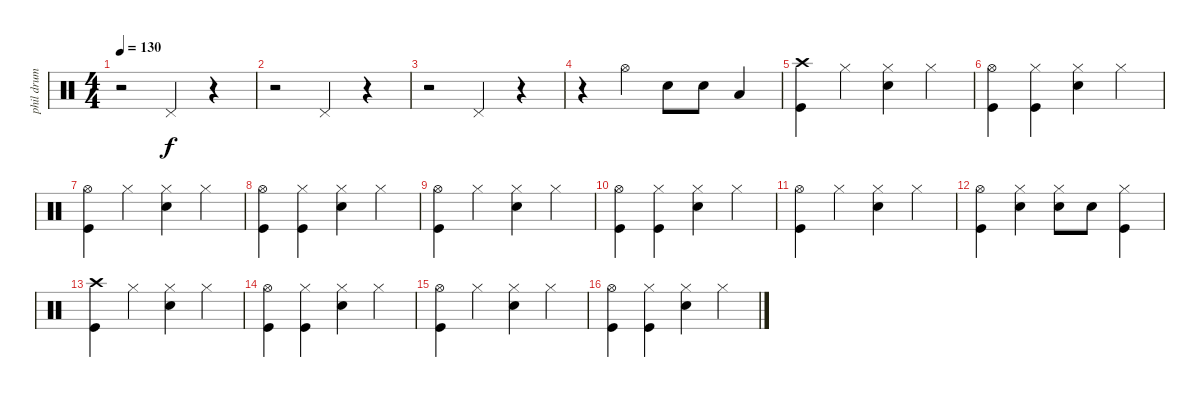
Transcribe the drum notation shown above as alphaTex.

\track ("phil drum" "phil drum") {instrument percussion}
\staff {score}
\articulation defaults
\ts (4 4)
\tempo 130
\clef neutral
\ks c
r.2{dy f} "Pedal Hi-Hat (hit)".4 r.4 |
r.2 "Pedal Hi-Hat (hit)".4 r.4 |
r.2 "Pedal Hi-Hat (hit)".4 r.4 |
r.4 "Hi-Hat (open)".4 "Snare (hit) 2".8 "Snare (hit) 2".8 "Low Tom (hit)".4 |
("Crash high (hit)" "Kick (hit)").4 "Hi-Hat (closed)".4 ("Hi-Hat (closed)" "Snare (hit) 2").4 "Hi-Hat (closed)".4 |
("Hi-Hat (open)" "Kick (hit)").4 ("Hi-Hat (closed)" "Kick (hit)").4 ("Hi-Hat (closed)" "Snare (hit) 2").4 "Hi-Hat (closed)".4 |
("Hi-Hat (open)" "Kick (hit)").4 "Hi-Hat (closed)".4 ("Hi-Hat (closed)" "Snare (hit) 2").4 "Hi-Hat (closed)".4 |
("Hi-Hat (open)" "Kick (hit)").4 ("Hi-Hat (closed)" "Kick (hit)").4 ("Hi-Hat (closed)" "Snare (hit) 2").4 "Hi-Hat (closed)".4 |
("Hi-Hat (open)" "Kick (hit)").4 "Hi-Hat (closed)".4 ("Hi-Hat (closed)" "Snare (hit) 2").4 "Hi-Hat (closed)".4 |
("Hi-Hat (open)" "Kick (hit)").4 ("Hi-Hat (closed)" "Kick (hit)").4 ("Hi-Hat (closed)" "Snare (hit) 2").4 "Hi-Hat (closed)".4 |
("Hi-Hat (open)" "Kick (hit)").4 "Hi-Hat (closed)".4 ("Hi-Hat (closed)" "Snare (hit) 2").4 "Hi-Hat (closed)".4 |
("Hi-Hat (open)" "Kick (hit)").4 ("Hi-Hat (closed)" "Snare (hit) 2").4 ("Hi-Hat (closed)" "Snare (hit) 2").8 "Snare (hit) 2".8 ("Hi-Hat (closed)" "Kick (hit)").4 |
("Crash high (hit)" "Kick (hit)").4 "Hi-Hat (closed)".4 ("Hi-Hat (closed)" "Snare (hit) 2").4 "Hi-Hat (closed)".4 |
("Hi-Hat (open)" "Kick (hit)").4 ("Hi-Hat (closed)" "Kick (hit)").4 ("Hi-Hat (closed)" "Snare (hit) 2").4 "Hi-Hat (closed)".4 |
("Hi-Hat (open)" "Kick (hit)").4 "Hi-Hat (closed)".4 ("Hi-Hat (closed)" "Snare (hit) 2").4 "Hi-Hat (closed)".4 |
("Hi-Hat (open)" "Kick (hit)").4 ("Hi-Hat (closed)" "Kick (hit)").4 ("Hi-Hat (closed)" "Snare (hit) 2").4 "Hi-Hat (closed)".4
